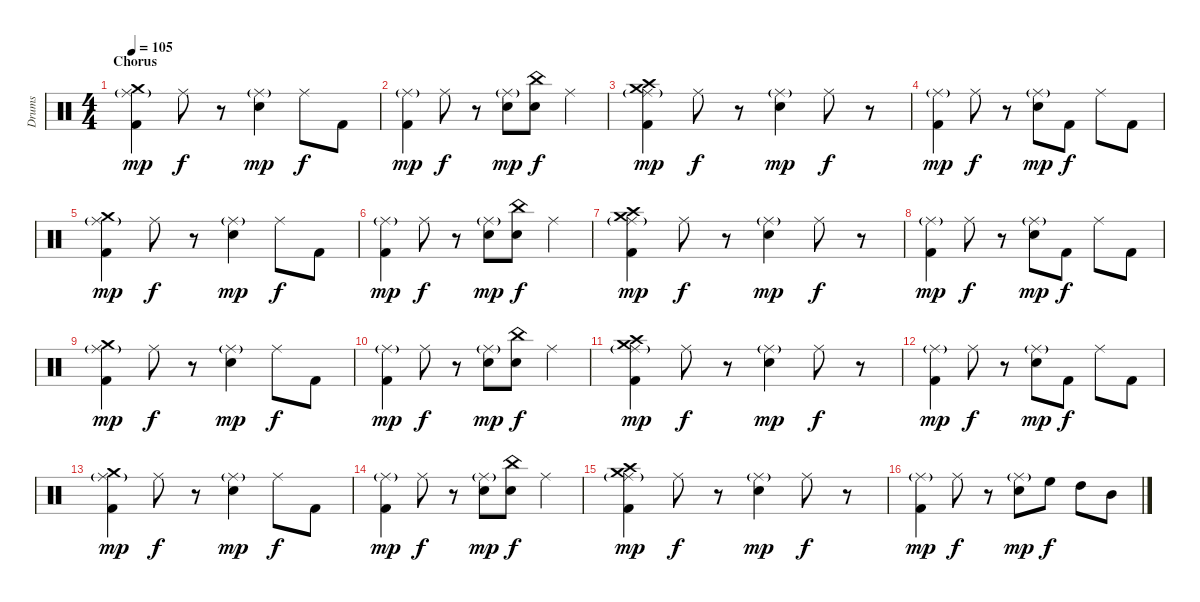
\track ("Drums" "Drums") {instrument percussion}
\staff {score}
\articulation defaults
\ts (4 4)
\section ("" "Chorus")
\tempo 105
\clef neutral
\ks c
("Ride (middle)"{g} "Crash medium (hit)" "Kick (hit) 2").4{dy mp volume 12} "Ride (middle)".8{dy f} r.8 ("Ride (middle)"{g} "Electric Snare (hit)").4{dy mp} "Ride (middle)".8{dy f} "Kick (hit) 2".8 |
("Ride (middle)"{g} "Kick (hit) 2").4{dy mp} "Ride (middle)".8{dy f} r.8 ("Ride (middle)"{g} "Electric Snare (hit)").8{dy mp} ("China (hit)" "Electric Snare (hit)").8{dy f} "Ride (middle)".4 |
("Ride (middle)"{g} "Crash medium (hit)" "Crash high (hit)" "Kick (hit) 2").4{dy mp} "Ride (middle)".8{dy f} r.8 ("Ride (middle)"{g} "Electric Snare (hit)").4{dy mp} "Ride (middle)".8{dy f} r.8 |
("Ride (middle)"{g} "Kick (hit) 2").4{dy mp} "Ride (middle)".8{dy f} r.8 ("Ride (middle)"{g} "Electric Snare (hit)").8{dy mp} "Kick (hit) 2".8{dy f} "Ride (middle)".8 "Kick (hit) 2".8 |
("Ride (middle)"{g} "Crash medium (hit)" "Kick (hit) 2").4{dy mp volume 12} "Ride (middle)".8{dy f} r.8 ("Ride (middle)"{g} "Electric Snare (hit)").4{dy mp} "Ride (middle)".8{dy f} "Kick (hit) 2".8 |
("Ride (middle)"{g} "Kick (hit) 2").4{dy mp} "Ride (middle)".8{dy f} r.8 ("Ride (middle)"{g} "Electric Snare (hit)").8{dy mp} ("China (hit)" "Electric Snare (hit)").8{dy f} "Ride (middle)".4 |
("Ride (middle)"{g} "Crash medium (hit)" "Crash high (hit)" "Kick (hit) 2").4{dy mp} "Ride (middle)".8{dy f} r.8 ("Ride (middle)"{g} "Electric Snare (hit)").4{dy mp} "Ride (middle)".8{dy f} r.8 |
("Ride (middle)"{g} "Kick (hit) 2").4{dy mp} "Ride (middle)".8{dy f} r.8 ("Ride (middle)"{g} "Electric Snare (hit)").8{dy mp} "Kick (hit) 2".8{dy f} "Ride (middle)".8 "Kick (hit) 2".8 |
("Ride (middle)"{g} "Crash medium (hit)" "Kick (hit) 2").4{dy mp volume 12} "Ride (middle)".8{dy f} r.8 ("Ride (middle)"{g} "Electric Snare (hit)").4{dy mp} "Ride (middle)".8{dy f} "Kick (hit) 2".8 |
("Ride (middle)"{g} "Kick (hit) 2").4{dy mp} "Ride (middle)".8{dy f} r.8 ("Ride (middle)"{g} "Electric Snare (hit)").8{dy mp} ("China (hit)" "Electric Snare (hit)").8{dy f} "Ride (middle)".4 |
("Ride (middle)"{g} "Crash medium (hit)" "Crash high (hit)" "Kick (hit) 2").4{dy mp} "Ride (middle)".8{dy f} r.8 ("Ride (middle)"{g} "Electric Snare (hit)").4{dy mp} "Ride (middle)".8{dy f} r.8 |
("Ride (middle)"{g} "Kick (hit) 2").4{dy mp} "Ride (middle)".8{dy f} r.8 ("Ride (middle)"{g} "Electric Snare (hit)").8{dy mp} "Kick (hit) 2".8{dy f} "Ride (middle)".8 "Kick (hit) 2".8 |
("Ride (middle)"{g} "Crash medium (hit)" "Kick (hit) 2").4{dy mp volume 12} "Ride (middle)".8{dy f} r.8 ("Ride (middle)"{g} "Electric Snare (hit)").4{dy mp} "Ride (middle)".8{dy f} "Kick (hit) 2".8 |
("Ride (middle)"{g} "Kick (hit) 2").4{dy mp} "Ride (middle)".8{dy f} r.8 ("Ride (middle)"{g} "Electric Snare (hit)").8{dy mp} ("China (hit)" "Electric Snare (hit)").8{dy f} "Ride (middle)".4 |
("Ride (middle)"{g} "Crash medium (hit)" "Crash high (hit)" "Kick (hit) 2").4{dy mp} "Ride (middle)".8{dy f} r.8 ("Ride (middle)"{g} "Electric Snare (hit)").4{dy mp} "Ride (middle)".8{dy f} r.8 |
("Ride (middle)"{g} "Kick (hit) 2").4{dy mp} "Ride (middle)".8{dy f} r.8 ("Ride (middle)"{g} "Electric Snare (hit)").8{dy mp} "High Floor Tom (hit)".8{dy f} "High Tom (hit)".8 "Mid Tom (hit)".8
